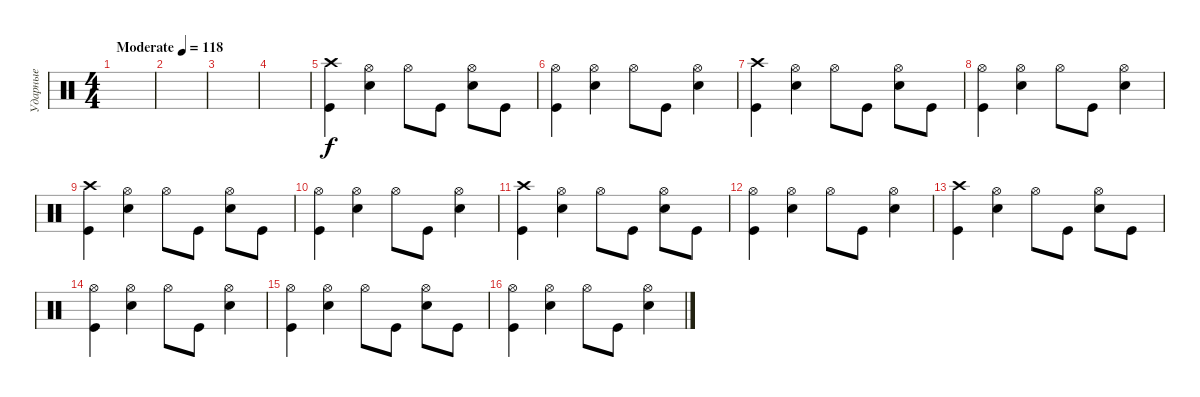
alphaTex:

\track ("Ударные" "Ударные") {instrument percussion}
\staff {score}
\articulation defaults
\ts (4 4)
\tempo (118 "Moderate")
\clef neutral
\ks c
|
|
|
|
("Crash high (hit)" "Kick (hit)").4 ("Hi-Hat (open)" "Snare (hit) 2").4 "Hi-Hat (open)".8 "Kick (hit)".8 ("Hi-Hat (open)" "Snare (hit) 2").8 "Kick (hit)".8 |
("Hi-Hat (open)" "Kick (hit)").4 ("Hi-Hat (open)" "Snare (hit) 2").4 "Hi-Hat (open)".8 "Kick (hit)".8 ("Hi-Hat (open)" "Snare (hit) 2").4 |
("Crash high (hit)" "Kick (hit)").4 ("Hi-Hat (open)" "Snare (hit) 2").4 "Hi-Hat (open)".8 "Kick (hit)".8 ("Hi-Hat (open)" "Snare (hit) 2").8 "Kick (hit)".8 |
("Hi-Hat (open)" "Kick (hit)").4 ("Hi-Hat (open)" "Snare (hit) 2").4 "Hi-Hat (open)".8 "Kick (hit)".8 ("Hi-Hat (open)" "Snare (hit) 2").4 |
("Crash high (hit)" "Kick (hit)").4 ("Hi-Hat (open)" "Snare (hit) 2").4 "Hi-Hat (open)".8 "Kick (hit)".8 ("Hi-Hat (open)" "Snare (hit) 2").8 "Kick (hit)".8 |
("Hi-Hat (open)" "Kick (hit)").4 ("Hi-Hat (open)" "Snare (hit) 2").4 "Hi-Hat (open)".8 "Kick (hit)".8 ("Hi-Hat (open)" "Snare (hit) 2").4 |
("Crash high (hit)" "Kick (hit)").4 ("Hi-Hat (open)" "Snare (hit) 2").4 "Hi-Hat (open)".8 "Kick (hit)".8 ("Hi-Hat (open)" "Snare (hit) 2").8 "Kick (hit)".8 |
("Hi-Hat (open)" "Kick (hit)").4 ("Hi-Hat (open)" "Snare (hit) 2").4 "Hi-Hat (open)".8 "Kick (hit)".8 ("Hi-Hat (open)" "Snare (hit) 2").4 |
("Crash high (hit)" "Kick (hit)").4 ("Hi-Hat (open)" "Snare (hit) 2").4 "Hi-Hat (open)".8 "Kick (hit)".8 ("Hi-Hat (open)" "Snare (hit) 2").8 "Kick (hit)".8 |
("Hi-Hat (open)" "Kick (hit)").4 ("Hi-Hat (open)" "Snare (hit) 2").4 "Hi-Hat (open)".8 "Kick (hit)".8 ("Hi-Hat (open)" "Snare (hit) 2").4 |
("Hi-Hat (open)" "Kick (hit)").4 ("Hi-Hat (open)" "Snare (hit) 2").4 "Hi-Hat (open)".8 "Kick (hit)".8 ("Hi-Hat (open)" "Snare (hit) 2").8 "Kick (hit)".8 |
("Hi-Hat (open)" "Kick (hit)").4 ("Hi-Hat (open)" "Snare (hit) 2").4 "Hi-Hat (open)".8 "Kick (hit)".8 ("Hi-Hat (open)" "Snare (hit) 2").4
